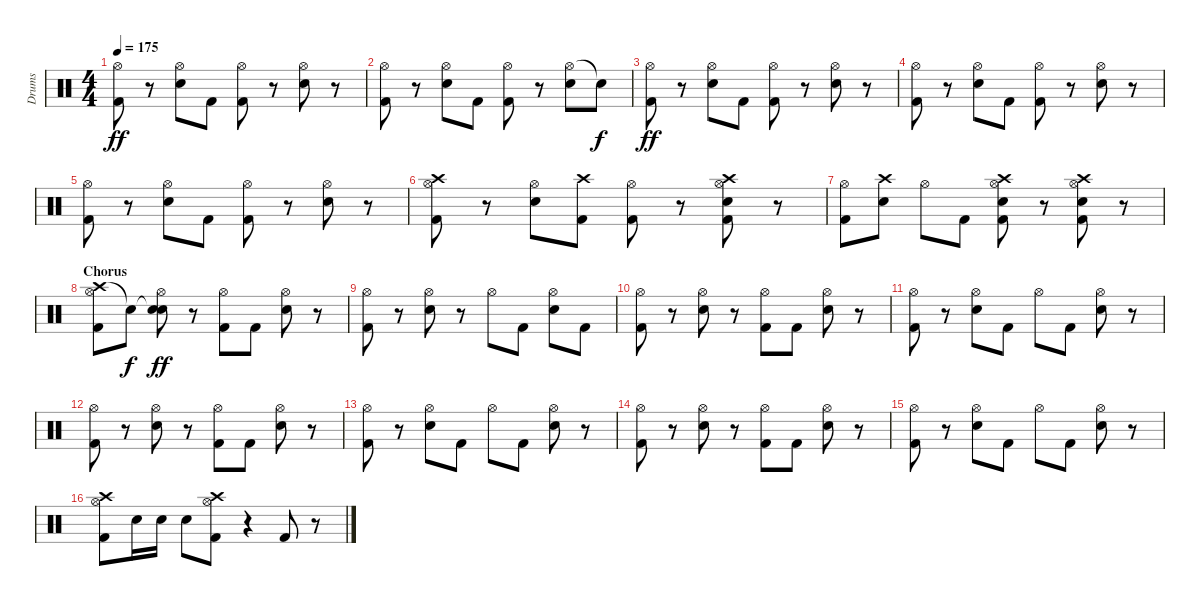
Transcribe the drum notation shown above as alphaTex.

\track ("Drums" "Drums") {instrument percussion}
\staff {score}
\articulation defaults
\ts (4 4)
\tempo 175
\clef neutral
\ks c
("Hi-Hat (open)" "Kick (hit) 2").8{dy ff} r.8 ("Hi-Hat (open)" "Electric Snare (hit)").8 "Kick (hit) 2".8 ("Hi-Hat (open)" "Kick (hit) 2").8 r.8 ("Hi-Hat (open)" "Electric Snare (hit)").8 r.8 |
("Hi-Hat (open)" "Kick (hit) 2").8 r.8 ("Hi-Hat (open)" "Electric Snare (hit)").8 "Kick (hit) 2".8 ("Hi-Hat (open)" "Kick (hit) 2").8 r.8 ("Hi-Hat (open)" "Electric Snare (hit)").8 "Snare (hit)"{t}.8{dy f} |
("Hi-Hat (open)" "Kick (hit) 2").8{dy ff} r.8 ("Hi-Hat (open)" "Electric Snare (hit)").8 "Kick (hit) 2".8 ("Hi-Hat (open)" "Kick (hit) 2").8 r.8 ("Hi-Hat (open)" "Electric Snare (hit)").8 r.8 |
("Hi-Hat (open)" "Kick (hit) 2").8 r.8 ("Hi-Hat (open)" "Electric Snare (hit)").8 "Kick (hit) 2".8 ("Hi-Hat (open)" "Kick (hit) 2").8 r.8 ("Hi-Hat (open)" "Electric Snare (hit)").8 r.8 |
("Hi-Hat (open)" "Kick (hit) 2").8 r.8 ("Hi-Hat (open)" "Electric Snare (hit)").8 "Kick (hit) 2".8 ("Hi-Hat (open)" "Kick (hit) 2").8 r.8 ("Hi-Hat (open)" "Electric Snare (hit)").8 r.8 |
("Crash high (hit)" "Hi-Hat (open)" "Kick (hit) 2").8 r.8 ("Hi-Hat (open)" "Electric Snare (hit)").8 ("Crash high (hit)" "Kick (hit) 2").8 ("Hi-Hat (open)" "Kick (hit) 2").8 r.8 ("Crash high (hit)" "Hi-Hat (open)" "Electric Snare (hit)" "Kick (hit) 2").8 r.8 |
("Hi-Hat (open)" "Kick (hit) 2").8 ("Crash high (hit)" "Electric Snare (hit)").8 "Hi-Hat (open)".8 "Kick (hit) 2".8 ("Crash high (hit)" "Hi-Hat (open)" "Electric Snare (hit)" "Kick (hit) 2").8 r.8 ("Crash high (hit)" "Hi-Hat (open)" "Electric Snare (hit)" "Kick (hit) 2").8 r.8 |
\section ("" "Chorus")
("Crash high (hit)" "Hi-Hat (open)" "Kick (hit) 2").8 "Snare (hit)"{t}.8{dy f} ("Snare (hit)"{t} "Hi-Hat (open)" "Electric Snare (hit)").8{dy ff} r.8 ("Hi-Hat (open)" "Kick (hit) 2").8 "Kick (hit) 2".8 ("Hi-Hat (open)" "Electric Snare (hit)").8 r.8 |
("Hi-Hat (open)" "Kick (hit) 2").8 r.8 ("Hi-Hat (open)" "Electric Snare (hit)").8 r.8 "Hi-Hat (open)".8 "Kick (hit) 2".8 ("Hi-Hat (open)" "Electric Snare (hit)").8 "Kick (hit) 2".8 |
("Hi-Hat (open)" "Kick (hit) 2").8 r.8 ("Hi-Hat (open)" "Electric Snare (hit)").8 r.8 ("Hi-Hat (open)" "Kick (hit) 2").8 "Kick (hit) 2".8 ("Hi-Hat (open)" "Electric Snare (hit)").8 r.8 |
("Hi-Hat (open)" "Kick (hit) 2").8 r.8 ("Hi-Hat (open)" "Electric Snare (hit)").8 "Kick (hit) 2".8 "Hi-Hat (open)".8 "Kick (hit) 2".8 ("Hi-Hat (open)" "Electric Snare (hit)").8 r.8 |
("Hi-Hat (open)" "Kick (hit) 2").8 r.8 ("Hi-Hat (open)" "Electric Snare (hit)").8 r.8 ("Hi-Hat (open)" "Kick (hit) 2").8 "Kick (hit) 2".8 ("Hi-Hat (open)" "Electric Snare (hit)").8 r.8 |
("Hi-Hat (open)" "Kick (hit) 2").8 r.8 ("Hi-Hat (open)" "Electric Snare (hit)").8 "Kick (hit) 2".8 "Hi-Hat (open)".8 "Kick (hit) 2".8 ("Hi-Hat (open)" "Electric Snare (hit)").8 r.8 |
("Hi-Hat (open)" "Kick (hit) 2").8 r.8 ("Hi-Hat (open)" "Electric Snare (hit)").8 r.8 ("Hi-Hat (open)" "Kick (hit) 2").8 "Kick (hit) 2".8 ("Hi-Hat (open)" "Electric Snare (hit)").8 r.8 |
("Hi-Hat (open)" "Kick (hit) 2").8 r.8 ("Hi-Hat (open)" "Electric Snare (hit)").8 "Kick (hit) 2".8 "Hi-Hat (open)".8 "Kick (hit) 2".8 ("Hi-Hat (open)" "Electric Snare (hit)").8 r.8 |
("Crash high (hit)" "Hi-Hat (open)" "Kick (hit) 2").8 "Electric Snare (hit)".16 "Electric Snare (hit)".16 "Electric Snare (hit)".8 ("Crash high (hit)" "Hi-Hat (open)" "Kick (hit) 2").8 r.4 "Kick (hit) 2".8 r.8
